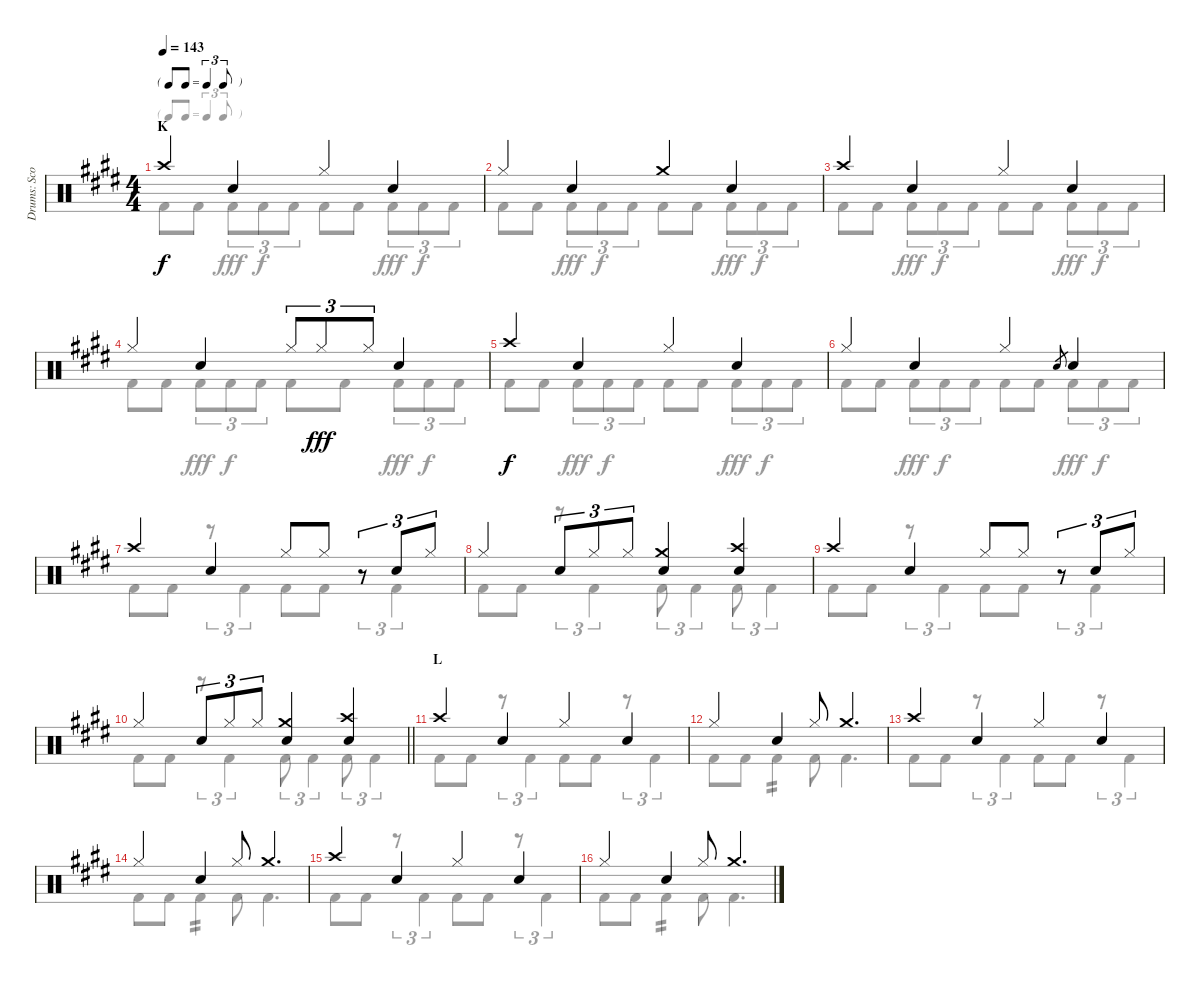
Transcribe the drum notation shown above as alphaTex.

\track ("Drums: Scott" "Drums: Sco") {instrument percussion}
\staff {score}
\articulation defaults
\voice
\ts (4 4)
\tf triplet8th
\section ("" "K")
\tempo 143
\clef neutral
\ks e "Crash high (hit)".4{dy f} "Snare (hit) 2".4 "Hi-Hat (closed)".4 "Snare (hit) 2".4
|
"Hi-Hat (closed)".4 "Snare (hit) 2".4 "Crash medium (hit)".4 "Snare (hit) 2".4 |
"Crash high (hit)".4 "Snare (hit) 2".4 "Hi-Hat (closed)".4 "Snare (hit) 2".4 |
"Hi-Hat (closed)".4 "Snare (hit) 2".4 "Hi-Hat (closed)".8{tu (3 2)} "Hi-Hat (closed)".8{tu (3 2) dy fff} "Hi-Hat (closed)".8{tu (3 2)} "Snare (hit) 2".4 |
"Crash high (hit)".4{dy f} "Snare (hit) 2".4 "Hi-Hat (closed)".4 "Snare (hit) 2".4 |
"Hi-Hat (closed)".4 "Snare (hit) 2".4 "Hi-Hat (closed)".4 "Electric Snare (hit)".8{gr} "Snare (hit) 2".4 |
"Crash high (hit)".4 "Snare (hit) 2".4 "Hi-Hat (closed)".8 "Hi-Hat (closed)".8 r.8{tu (3 2)} "Snare (hit) 2".8{tu (3 2)} "Hi-Hat (closed)".8{tu (3 2)} |
"Hi-Hat (closed)".4 "Snare (hit) 2".8{tu (3 2)} "Hi-Hat (closed)".8{tu (3 2)} "Hi-Hat (closed)".8{tu (3 2)} ("Crash medium (hit)" "Snare (hit) 2").4 ("Crash high (hit)" "Snare (hit) 2").4 |
"Crash high (hit)".4 "Snare (hit) 2".4 "Hi-Hat (closed)".8 "Hi-Hat (closed)".8 r.8{tu (3 2)} "Snare (hit) 2".8{tu (3 2)} "Hi-Hat (closed)".8{tu (3 2)} |
\barLineRight lightlight "Hi-Hat (closed)".4 "Snare (hit) 2".8{tu (3 2)} "Hi-Hat (closed)".8{tu (3 2)} "Hi-Hat (closed)".8{tu (3 2)}
("Crash medium (hit)" "Snare (hit) 2").4 ("Crash high (hit)" "Snare (hit) 2").4 |
\section ("" "L")
"Crash high (hit)".4 "Snare (hit) 2".4 "Hi-Hat (closed)".4 "Snare (hit) 2".4 |
"Hi-Hat (closed)".4 "Snare (hit) 2".4 "Hi-Hat (closed)".8 "Crash medium (hit)".4{d} |
"Crash high (hit)".4 "Snare (hit) 2".4 "Hi-Hat (closed)".4 "Snare (hit) 2".4 |
"Hi-Hat (closed)".4 "Snare (hit) 2".4 "Hi-Hat (closed)".8 "Crash medium (hit)".4{d} |
"Crash high (hit)".4 "Snare (hit) 2".4 "Hi-Hat (closed)".4 "Snare (hit) 2".4 |
"Hi-Hat (closed)".4 "Snare (hit) 2".4 "Hi-Hat (closed)".8 "Crash medium (hit)".4{d}
\voice
\clef neutral
\ottava regular
\simile none
\ks e "Kick (hit) 2".8{dy f} "Kick (hit) 2".8 "Kick (hit) 2".8{tu (3 2) dy fff} "Kick (hit) 2".8{tu (3 2) dy f} "Kick (hit) 2".8{tu (3 2)} "Kick (hit) 2".8 "Kick (hit) 2".8 "Kick (hit) 2".8{tu (3 2) dy fff} "Kick (hit) 2".8{tu (3 2) dy f} "Kick (hit) 2".8{tu (3 2)}
|
"Kick (hit) 2".8 "Kick (hit) 2".8 "Kick (hit) 2".8{tu (3 2) dy fff} "Kick (hit) 2".8{tu (3 2) dy f} "Kick (hit) 2".8{tu (3 2)} "Kick (hit) 2".8 "Kick (hit) 2".8 "Kick (hit) 2".8{tu (3 2) dy fff} "Kick (hit) 2".8{tu (3 2) dy f} "Kick (hit) 2".8{tu (3 2)} |
"Kick (hit) 2".8 "Kick (hit) 2".8 "Kick (hit) 2".8{tu (3 2) dy fff} "Kick (hit) 2".8{tu (3 2) dy f} "Kick (hit) 2".8{tu (3 2)} "Kick (hit) 2".8 "Kick (hit) 2".8 "Kick (hit) 2".8{tu (3 2) dy fff} "Kick (hit) 2".8{tu (3 2) dy f} "Kick (hit) 2".8{tu (3 2)} |
"Kick (hit) 2".8 "Kick (hit) 2".8 "Kick (hit) 2".8{tu (3 2) dy fff} "Kick (hit) 2".8{tu (3 2) dy f} "Kick (hit) 2".8{tu (3 2)} "Kick (hit) 2".8 "Kick (hit) 2".8 "Kick (hit) 2".8{tu (3 2) dy fff} "Kick (hit) 2".8{tu (3 2) dy f} "Kick (hit) 2".8{tu (3 2)} |
"Kick (hit) 2".8 "Kick (hit) 2".8 "Kick (hit) 2".8{tu (3 2) dy fff} "Kick (hit) 2".8{tu (3 2) dy f} "Kick (hit) 2".8{tu (3 2)} "Kick (hit) 2".8 "Kick (hit) 2".8 "Kick (hit) 2".8{tu (3 2) dy fff} "Kick (hit) 2".8{tu (3 2) dy f} "Kick (hit) 2".8{tu (3 2)} |
"Kick (hit) 2".8 "Kick (hit) 2".8 "Kick (hit) 2".8{tu (3 2) dy fff} "Kick (hit) 2".8{tu (3 2) dy f} "Kick (hit) 2".8{tu (3 2)} "Kick (hit) 2".8 "Kick (hit) 2".8 "Kick (hit) 2".8{tu (3 2) dy fff} "Kick (hit) 2".8{tu (3 2) dy f} "Kick (hit) 2".8{tu (3 2)} |
"Kick (hit) 2".8 "Kick (hit) 2".8 r.8{tu (3 2)} "Kick (hit) 2".4{tu (3 2)} "Kick (hit) 2".8 "Kick (hit) 2".8 r.8{tu (3 2)} "Kick (hit) 2".4{tu (3 2)} |
"Kick (hit) 2".8 "Kick (hit) 2".8 r.8{tu (3 2)} "Kick (hit) 2".4{tu (3 2)} "Kick (hit) 2".8{tu (3 2)} "Kick (hit) 2".4{tu (3 2)} "Kick (hit) 2".8{tu (3 2)} "Kick (hit) 2".4{tu (3 2)} |
"Kick (hit) 2".8 "Kick (hit) 2".8 r.8{tu (3 2)} "Kick (hit) 2".4{tu (3 2)} "Kick (hit) 2".8 "Kick (hit) 2".8 r.8{tu (3 2)} "Kick (hit) 2".4{tu (3 2)} |
\barLineRight lightlight "Kick (hit) 2".8 "Kick (hit) 2".8
r.8{tu (3 2)} "Kick (hit) 2".4{tu (3 2)} "Kick (hit) 2".8{tu (3 2)} "Kick (hit) 2".4{tu (3 2)} "Kick (hit) 2".8{tu (3 2)} "Kick (hit) 2".4{tu (3 2)} |
"Kick (hit) 2".8 "Kick (hit) 2".8 r.8{tu (3 2)} "Kick (hit) 2".4{tu (3 2)} "Kick (hit) 2".8 "Kick (hit) 2".8 r.8{tu (3 2)} "Kick (hit) 2".4{tu (3 2)} |
"Kick (hit) 2".8 "Kick (hit) 2".8 "Kick (hit) 2".4{tp 2} "Kick (hit) 2".8 "Kick (hit) 2".4{d} |
"Kick (hit) 2".8 "Kick (hit) 2".8 r.8{tu (3 2)} "Kick (hit) 2".4{tu (3 2)} "Kick (hit) 2".8 "Kick (hit) 2".8 r.8{tu (3 2)} "Kick (hit) 2".4{tu (3 2)} |
"Kick (hit) 2".8 "Kick (hit) 2".8 "Kick (hit) 2".4{tp 2} "Kick (hit) 2".8 "Kick (hit) 2".4{d} |
"Kick (hit) 2".8 "Kick (hit) 2".8 r.8{tu (3 2)} "Kick (hit) 2".4{tu (3 2)} "Kick (hit) 2".8 "Kick (hit) 2".8 r.8{tu (3 2)} "Kick (hit) 2".4{tu (3 2)} |
"Kick (hit) 2".8 "Kick (hit) 2".8 "Kick (hit) 2".4{tp 2} "Kick (hit) 2".8 "Kick (hit) 2".4{d}
